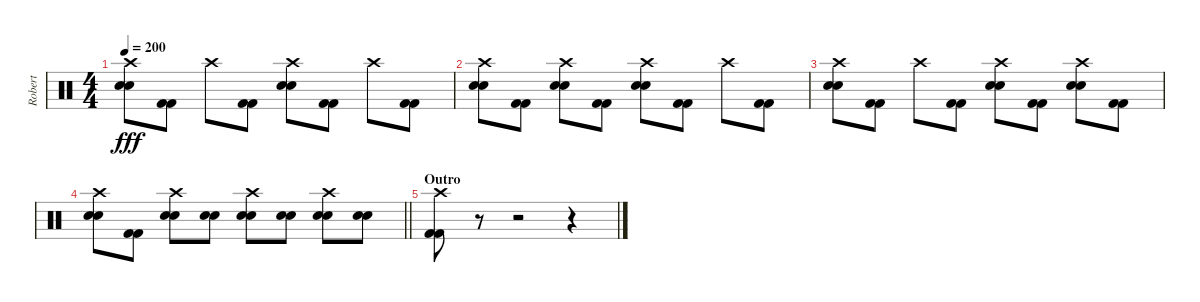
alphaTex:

\track ("Robert" "Robert") {instrument percussion}
\staff {score}
\articulation defaults
\ts (4 4)
\tempo 200
\clef neutral
\ks c
("Crash high (hit)" "Electric Snare (hit)" "Electric Snare (hit)").8{dy fff} ("Kick (hit) 2" "Kick (hit) 2").8 "Crash high (hit)".8 ("Kick (hit) 2" "Kick (hit) 2").8 ("Crash high (hit)" "Electric Snare (hit)" "Electric Snare (hit)").8 ("Kick (hit) 2" "Kick (hit) 2").8 "Crash high (hit)".8 ("Kick (hit) 2" "Kick (hit) 2").8 |
("Crash high (hit)" "Electric Snare (hit)" "Electric Snare (hit)").8 ("Kick (hit) 2" "Kick (hit) 2").8 ("Crash high (hit)" "Electric Snare (hit)" "Electric Snare (hit)").8 ("Kick (hit) 2" "Kick (hit) 2").8 ("Crash high (hit)" "Electric Snare (hit)" "Electric Snare (hit)").8 ("Kick (hit) 2" "Kick (hit) 2").8 "Crash high (hit)".8 ("Kick (hit) 2" "Kick (hit) 2").8 |
("Crash high (hit)" "Electric Snare (hit)" "Electric Snare (hit)").8 ("Kick (hit) 2" "Kick (hit) 2").8 "Crash high (hit)".8 ("Kick (hit) 2" "Kick (hit) 2").8 ("Crash high (hit)" "Electric Snare (hit)" "Electric Snare (hit)").8 ("Kick (hit) 2" "Kick (hit) 2").8 ("Crash high (hit)" "Electric Snare (hit)" "Electric Snare (hit)").8 ("Kick (hit) 2" "Kick (hit) 2").8 |
\barLineRight lightlight
("Crash high (hit)" "Electric Snare (hit)" "Electric Snare (hit)").8 ("Kick (hit) 2" "Kick (hit) 2").8 ("Crash high (hit)" "Electric Snare (hit)" "Electric Snare (hit)").8 ("Electric Snare (hit)" "Electric Snare (hit)").8 ("Crash high (hit)" "Electric Snare (hit)" "Electric Snare (hit)").8 ("Electric Snare (hit)" "Electric Snare (hit)").8 ("Crash high (hit)" "Electric Snare (hit)" "Electric Snare (hit)").8 ("Electric Snare (hit)" "Electric Snare (hit)").8 |
\section ("" "Outro")
("Crash high (hit)" "Kick (hit) 2" "Kick (hit) 2").8 r.8 r.2 r.4
